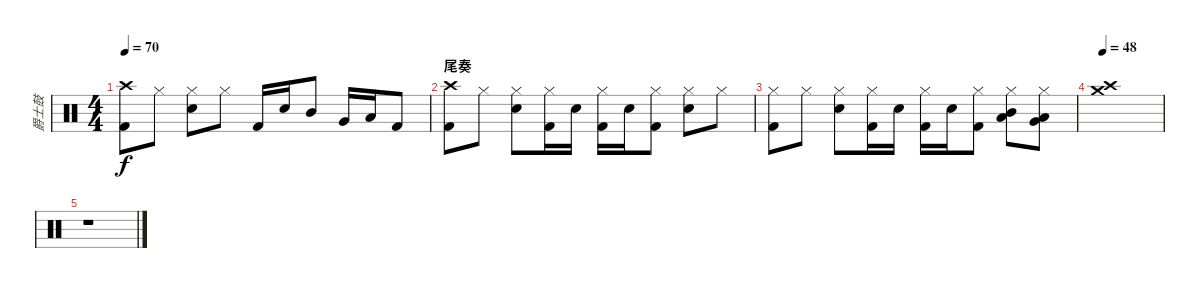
\track ("爵士鼓" "爵士鼓") {instrument percussion}
\staff {score}
\articulation defaults
\ts (4 4)
\tempo 70
\clef neutral
\ks c
("Crash high (hit)" "Kick (hit) 2").8{dy f} "Hi-Hat (closed)".8 ("Hi-Hat (closed)" "Electric Snare (hit)").8 "Hi-Hat (closed)".8 "Kick (hit) 2".16 "Electric Snare (hit)".16 "Mid Tom (hit)".8 "Very Low Tom (hit)".16 "Low Floor Tom (hit)".16 "Kick (hit) 2".8 |
\section ("" "尾奏")
("Crash high (hit)" "Kick (hit) 2").8 "Hi-Hat (closed)".8 ("Hi-Hat (closed)" "Electric Snare (hit)").8 ("Hi-Hat (closed)" "Kick (hit) 2").16 "Electric Snare (hit)".16 ("Hi-Hat (closed)" "Kick (hit) 2").16 "Electric Snare (hit)".16 ("Hi-Hat (closed)" "Kick (hit) 2").8 ("Hi-Hat (closed)" "Electric Snare (hit)").8 "Hi-Hat (closed)".8 |
("Hi-Hat (closed)" "Kick (hit) 2").8 "Hi-Hat (closed)".8 ("Hi-Hat (closed)" "Electric Snare (hit)").8 ("Hi-Hat (closed)" "Kick (hit) 2").16 "Electric Snare (hit)".16 ("Hi-Hat (closed)" "Kick (hit) 2").16 "Electric Snare (hit)".16 ("Hi-Hat (closed)" "Kick (hit) 2").8 ("Hi-Hat (closed)" "Mid Tom (hit)" "Low Tom (hit)").8 ("Hi-Hat (closed)" "Low Tom (hit)" "Very Low Tom (hit)").8 |
\tempo 48
("Crash high (hit)" "Crash medium (hit)").1 |
r.1
